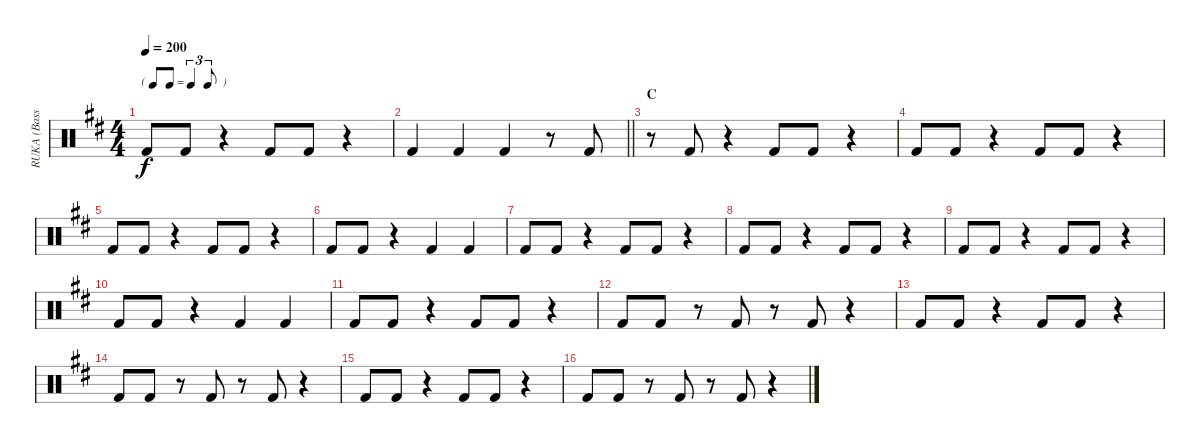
\track ("RUKA (Bass)" "RUKA (Bass") {instrument percussion}
\staff {score}
\articulation defaults
\ts (4 4)
\tf triplet8th
\tempo 200
\clef neutral
\ks d "Kick (hit) 2".8{dy f} "Kick (hit) 2".8
r.4 "Kick (hit) 2".8 "Kick (hit) 2".8 r.4 |
\barLineRight lightlight "Kick (hit) 2".4 "Kick (hit) 2".4 "Kick (hit) 2".4
r.8 "Kick (hit) 2".8 |
\section ("" "C")
r.8 "Kick (hit) 2".8 r.4 "Kick (hit) 2".8 "Kick (hit) 2".8 r.4 |
"Kick (hit) 2".8 "Kick (hit) 2".8 r.4 "Kick (hit) 2".8 "Kick (hit) 2".8 r.4 |
"Kick (hit) 2".8 "Kick (hit) 2".8 r.4 "Kick (hit) 2".8 "Kick (hit) 2".8 r.4 |
"Kick (hit) 2".8 "Kick (hit) 2".8 r.4 "Kick (hit) 2".4 "Kick (hit) 2".4 |
"Kick (hit) 2".8 "Kick (hit) 2".8 r.4 "Kick (hit) 2".8 "Kick (hit) 2".8 r.4 |
"Kick (hit) 2".8 "Kick (hit) 2".8 r.4 "Kick (hit) 2".8 "Kick (hit) 2".8 r.4 |
"Kick (hit) 2".8 "Kick (hit) 2".8 r.4 "Kick (hit) 2".8 "Kick (hit) 2".8 r.4 |
"Kick (hit) 2".8 "Kick (hit) 2".8 r.4 "Kick (hit) 2".4 "Kick (hit) 2".4 |
"Kick (hit) 2".8 "Kick (hit) 2".8 r.4 "Kick (hit) 2".8 "Kick (hit) 2".8 r.4 |
"Kick (hit) 2".8 "Kick (hit) 2".8 r.8 "Kick (hit) 2".8 r.8 "Kick (hit) 2".8 r.4 |
"Kick (hit) 2".8 "Kick (hit) 2".8 r.4 "Kick (hit) 2".8 "Kick (hit) 2".8 r.4 |
"Kick (hit) 2".8 "Kick (hit) 2".8 r.8 "Kick (hit) 2".8 r.8 "Kick (hit) 2".8 r.4 |
"Kick (hit) 2".8 "Kick (hit) 2".8 r.4 "Kick (hit) 2".8 "Kick (hit) 2".8 r.4 |
"Kick (hit) 2".8 "Kick (hit) 2".8 r.8 "Kick (hit) 2".8 r.8 "Kick (hit) 2".8 r.4
